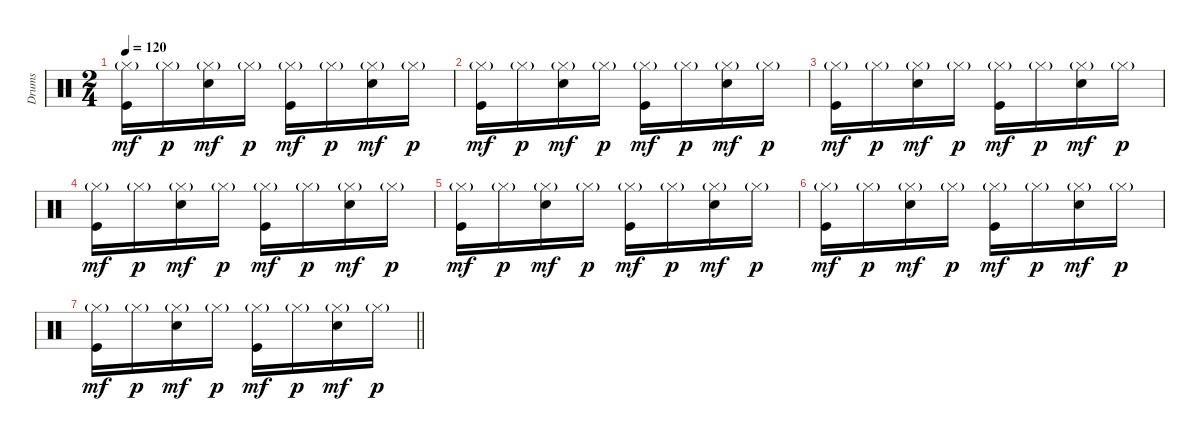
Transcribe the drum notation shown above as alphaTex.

\track ("Drums" "Drums") {instrument percussion}
\staff {score}
\articulation defaults
\ts (2 4)
\tempo 120
\clef neutral
\ks c
("Hi-Hat (closed)"{g} "Kick (hit)").16{dy mf} "Hi-Hat (closed)"{g}.16{dy p} ("Hi-Hat (closed)"{g} "Snare (hit) 2").16{dy mf} "Hi-Hat (closed)"{g}.16{dy p} ("Hi-Hat (closed)"{g} "Kick (hit)").16{dy mf} "Hi-Hat (closed)"{g}.16{dy p} ("Hi-Hat (closed)"{g} "Snare (hit) 2").16{dy mf} "Hi-Hat (closed)"{g}.16{dy p} |
("Hi-Hat (closed)"{g} "Kick (hit)").16{dy mf} "Hi-Hat (closed)"{g}.16{dy p} ("Hi-Hat (closed)"{g} "Snare (hit) 2").16{dy mf} "Hi-Hat (closed)"{g}.16{dy p} ("Hi-Hat (closed)"{g} "Kick (hit)").16{dy mf} "Hi-Hat (closed)"{g}.16{dy p} ("Hi-Hat (closed)"{g} "Snare (hit) 2").16{dy mf} "Hi-Hat (closed)"{g}.16{dy p} |
("Hi-Hat (closed)"{g} "Kick (hit)").16{dy mf} "Hi-Hat (closed)"{g}.16{dy p} ("Hi-Hat (closed)"{g} "Snare (hit) 2").16{dy mf} "Hi-Hat (closed)"{g}.16{dy p} ("Hi-Hat (closed)"{g} "Kick (hit)").16{dy mf} "Hi-Hat (closed)"{g}.16{dy p} ("Hi-Hat (closed)"{g} "Snare (hit) 2").16{dy mf} "Hi-Hat (closed)"{g}.16{dy p} |
("Hi-Hat (closed)"{g} "Kick (hit)").16{dy mf} "Hi-Hat (closed)"{g}.16{dy p} ("Hi-Hat (closed)"{g} "Snare (hit) 2").16{dy mf} "Hi-Hat (closed)"{g}.16{dy p} ("Hi-Hat (closed)"{g} "Kick (hit)").16{dy mf} "Hi-Hat (closed)"{g}.16{dy p} ("Hi-Hat (closed)"{g} "Snare (hit) 2").16{dy mf} "Hi-Hat (closed)"{g}.16{dy p} |
("Hi-Hat (closed)"{g} "Kick (hit)").16{dy mf} "Hi-Hat (closed)"{g}.16{dy p} ("Hi-Hat (closed)"{g} "Snare (hit) 2").16{dy mf} "Hi-Hat (closed)"{g}.16{dy p} ("Hi-Hat (closed)"{g} "Kick (hit)").16{dy mf} "Hi-Hat (closed)"{g}.16{dy p} ("Hi-Hat (closed)"{g} "Snare (hit) 2").16{dy mf} "Hi-Hat (closed)"{g}.16{dy p} |
("Hi-Hat (closed)"{g} "Kick (hit)").16{dy mf} "Hi-Hat (closed)"{g}.16{dy p} ("Hi-Hat (closed)"{g} "Snare (hit) 2").16{dy mf} "Hi-Hat (closed)"{g}.16{dy p} ("Hi-Hat (closed)"{g} "Kick (hit)").16{dy mf} "Hi-Hat (closed)"{g}.16{dy p} ("Hi-Hat (closed)"{g} "Snare (hit) 2").16{dy mf} "Hi-Hat (closed)"{g}.16{dy p} |
\barLineRight lightlight
("Hi-Hat (closed)"{g} "Kick (hit)").16{dy mf} "Hi-Hat (closed)"{g}.16{dy p} ("Hi-Hat (closed)"{g} "Snare (hit) 2").16{dy mf} "Hi-Hat (closed)"{g}.16{dy p} ("Hi-Hat (closed)"{g} "Kick (hit)").16{dy mf} "Hi-Hat (closed)"{g}.16{dy p} ("Hi-Hat (closed)"{g} "Snare (hit) 2").16{dy mf} "Hi-Hat (closed)"{g}.16{dy p}
